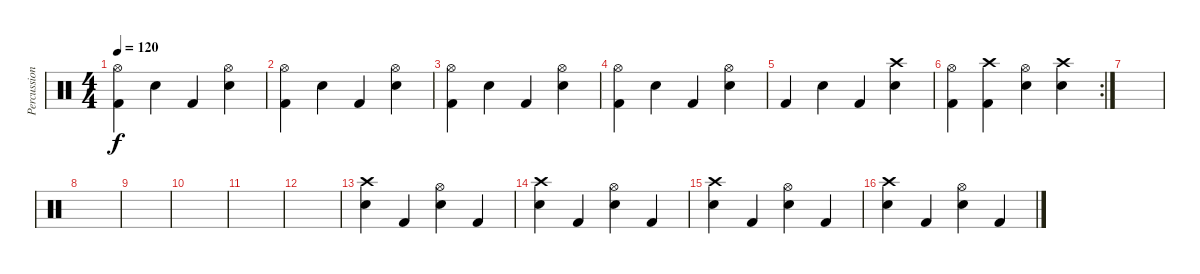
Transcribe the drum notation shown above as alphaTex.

\track ("Percussion" "Percussion") {instrument percussion}
\staff {score}
\articulation defaults
\ts (4 4)
\tempo 120
\clef neutral
\ks c
("Hi-Hat (open)" "Kick (hit) 2").4{dy f} "Electric Snare (hit)".4 "Kick (hit) 2".4 ("Hi-Hat (open)" "Electric Snare (hit)").4 |
("Hi-Hat (open)" "Kick (hit) 2").4 "Electric Snare (hit)".4 "Kick (hit) 2".4 ("Hi-Hat (open)" "Electric Snare (hit)").4 |
("Hi-Hat (open)" "Kick (hit) 2").4 "Electric Snare (hit)".4 "Kick (hit) 2".4 ("Hi-Hat (open)" "Electric Snare (hit)").4 |
("Hi-Hat (open)" "Kick (hit) 2").4 "Electric Snare (hit)".4 "Kick (hit) 2".4 ("Hi-Hat (open)" "Electric Snare (hit)").4 |
"Kick (hit) 2".4 "Electric Snare (hit)".4 "Kick (hit) 2".4 ("Crash high (hit)" "Electric Snare (hit)").4 |
\rc 2
("Hi-Hat (open)" "Kick (hit) 2").4 ("Crash high (hit)" "Kick (hit) 2").4 ("Hi-Hat (open)" "Electric Snare (hit)").4 ("Crash high (hit)" "Electric Snare (hit)").4 |
|
|
|
|
|
|
("Crash high (hit)" "Electric Snare (hit)").4 "Kick (hit) 2".4 ("Hi-Hat (open)" "Electric Snare (hit)").4 "Kick (hit) 2".4 |
("Crash high (hit)" "Electric Snare (hit)").4 "Kick (hit) 2".4 ("Hi-Hat (open)" "Electric Snare (hit)").4 "Kick (hit) 2".4 |
("Crash high (hit)" "Electric Snare (hit)").4 "Kick (hit) 2".4 ("Hi-Hat (open)" "Electric Snare (hit)").4 "Kick (hit) 2".4 |
("Crash high (hit)" "Electric Snare (hit)").4 "Kick (hit) 2".4 ("Hi-Hat (open)" "Electric Snare (hit)").4 "Kick (hit) 2".4
